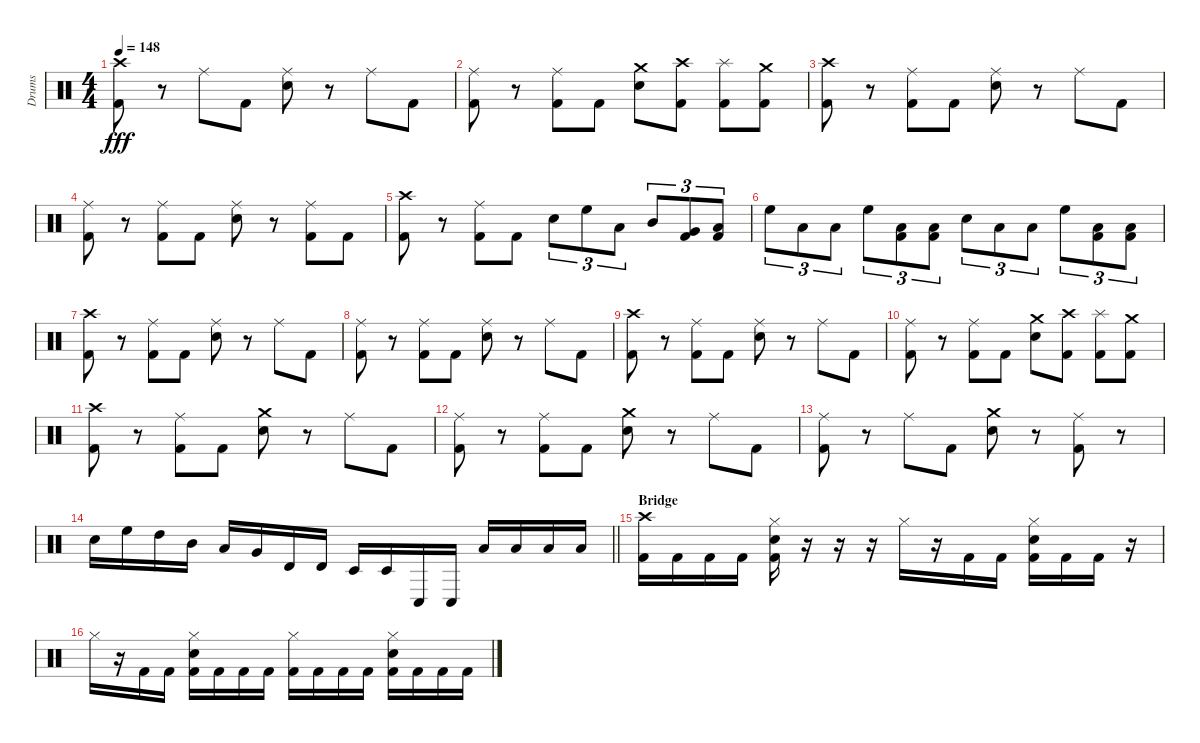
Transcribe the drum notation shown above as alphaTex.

\track ("Drums" "Drums") {instrument percussion}
\staff {score}
\articulation defaults
\ts (4 4)
\tempo 148
\clef neutral
\ks c
("Crash high (hit)" "Kick (hit) 2").8{dy fff} r.8 "Ride (middle)".8 "Kick (hit) 2".8 ("Ride (middle)" "Electric Snare (hit)").8 r.8 "Ride (middle)".8 "Kick (hit) 2".8 |
("Ride (middle)" "Kick (hit) 2").8 r.8 ("Ride (middle)" "Kick (hit) 2").8 "Kick (hit) 2".8 ("Crash medium (hit)" "Electric Snare (hit)").8 ("Crash high (hit)" "Kick (hit) 2").8 ("Splash (hit)" "Kick (hit) 2").8 ("Crash medium (hit)" "Kick (hit) 2").8 |
("Crash high (hit)" "Kick (hit) 2").8 r.8 ("Ride (middle)" "Kick (hit) 2").8 "Kick (hit) 2".8 ("Ride (middle)" "Electric Snare (hit)").8 r.8 "Ride (middle)".8 "Kick (hit) 2".8 |
("Ride (middle)" "Kick (hit) 2").8 r.8 ("Ride (middle)" "Kick (hit) 2").8 "Kick (hit) 2".8 ("Ride (middle)" "Electric Snare (hit)").8 r.8 ("Ride (middle)" "Kick (hit) 2").8 "Kick (hit) 2".8 |
("Crash high (hit)" "Kick (hit) 2").8 r.8 ("Ride (middle)" "Kick (hit) 2").8 "Kick (hit) 2".8 "Electric Snare (hit)".8{tu (3 2)} "High Floor Tom (hit)".8{tu (3 2)} "Low Tom (hit)".8{tu (3 2)} "Mid Tom (hit)".8{tu (3 2)} ("Very Low Tom (hit)" "Kick (hit) 2").8{tu (3 2)} ("Low Floor Tom (hit)" "Kick (hit) 2").8{tu (3 2)} |
"High Floor Tom (hit)".8{tu (3 2)} "Low Tom (hit)".8{tu (3 2)} "Low Floor Tom (hit)".8{tu (3 2)} "High Floor Tom (hit)".8{tu (3 2)} ("Low Tom (hit)" "Kick (hit) 2").8{tu (3 2)} ("Low Floor Tom (hit)" "Kick (hit) 2").8{tu (3 2)} "Electric Snare (hit)".8{tu (3 2)} "Low Tom (hit)".8{tu (3 2)} "Low Floor Tom (hit)".8{tu (3 2)} "High Floor Tom (hit)".8{tu (3 2)} ("Low Tom (hit)" "Kick (hit) 2").8{tu (3 2)} ("Low Floor Tom (hit)" "Kick (hit) 2").8{tu (3 2)} |
("Crash high (hit)" "Kick (hit) 2").8 r.8 ("Ride (middle)" "Kick (hit) 2").8 "Kick (hit) 2".8 ("Ride (middle)" "Electric Snare (hit)").8 r.8 "Ride (middle)".8 "Kick (hit) 2".8 |
("Ride (middle)" "Kick (hit) 2").8 r.8 ("Ride (middle)" "Kick (hit) 2").8 "Kick (hit) 2".8 ("Ride (middle)" "Electric Snare (hit)").8 r.8 "Ride (middle)".8 "Kick (hit) 2".8 |
("Crash high (hit)" "Kick (hit) 2").8 r.8 ("Ride (middle)" "Kick (hit) 2").8 "Kick (hit) 2".8 ("Ride (middle)" "Electric Snare (hit)").8 r.8 "Ride (middle)".8 "Kick (hit) 2".8 |
("Ride (middle)" "Kick (hit) 2").8 r.8 ("Ride (middle)" "Kick (hit) 2").8 "Kick (hit) 2".8 ("Crash medium (hit)" "Electric Snare (hit)").8 ("Crash high (hit)" "Kick (hit) 2").8 ("Splash (hit)" "Kick (hit) 2").8 ("Crash medium (hit)" "Kick (hit) 2").8 |
("Crash high (hit)" "Kick (hit) 2").8 r.8 ("Ride (middle)" "Kick (hit) 2").8 "Kick (hit) 2".8 ("Crash medium (hit)" "Electric Snare (hit)").8 r.8 "Ride (middle)".8 "Kick (hit) 2".8 |
("Ride (middle)" "Kick (hit) 2").8 r.8 ("Ride (middle)" "Kick (hit) 2").8 "Kick (hit) 2".8 ("Crash medium (hit)" "Electric Snare (hit)").8 r.8 "Ride (middle)".8 "Kick (hit) 2".8 |
("Ride (middle)" "Kick (hit) 2").8 r.8 "Ride (middle)".8 "Kick (hit) 2".8 ("Crash medium (hit)" "Electric Snare (hit)").8 r.8 ("Ride (middle)" "Kick (hit) 2").8 r.8 |
\barLineRight lightlight "Electric Snare (hit)".16 "High Floor Tom (hit)".16 "High Tom (hit)".16 "Mid Tom (hit)".16 "Low Tom (hit)".16 "Very Low Tom (hit)".16 "Timbale high (hit)".16 "Timbale high (hit)".16 "Timbale low (hit)".16 "Timbale low (hit)".16 "Conga low (hit)".16 "Conga low (hit)".16 "Low Tom (hit)".16 "Low Tom (hit)".16 "Low Floor Tom (hit)".16 "Low Floor Tom (hit)".16
|
\section ("" "Bridge")
("Crash high (hit)" "Kick (hit) 2").16 "Kick (hit) 2".16 "Kick (hit) 2".16 "Kick (hit) 2".16 ("Hi-Hat (closed)" "Electric Snare (hit)" "Kick (hit) 2").16 r.16 r.16 r.16 "Hi-Hat (closed)".16 r.16 "Kick (hit) 2".16 "Kick (hit) 2".16 ("Hi-Hat (closed)" "Electric Snare (hit)" "Kick (hit) 2").16 "Kick (hit) 2".16 "Kick (hit) 2".16 r.16 |
"Hi-Hat (closed)".16 r.16 "Kick (hit) 2".16 "Kick (hit) 2".16 ("Hi-Hat (closed)" "Electric Snare (hit)" "Kick (hit) 2").16 "Kick (hit) 2".16 "Kick (hit) 2".16 "Kick (hit) 2".16 ("Hi-Hat (closed)" "Kick (hit) 2").16 "Kick (hit) 2".16 "Kick (hit) 2".16 "Kick (hit) 2".16 ("Hi-Hat (closed)" "Electric Snare (hit)" "Kick (hit) 2").16 "Kick (hit) 2".16 "Kick (hit) 2".16 "Kick (hit) 2".16
